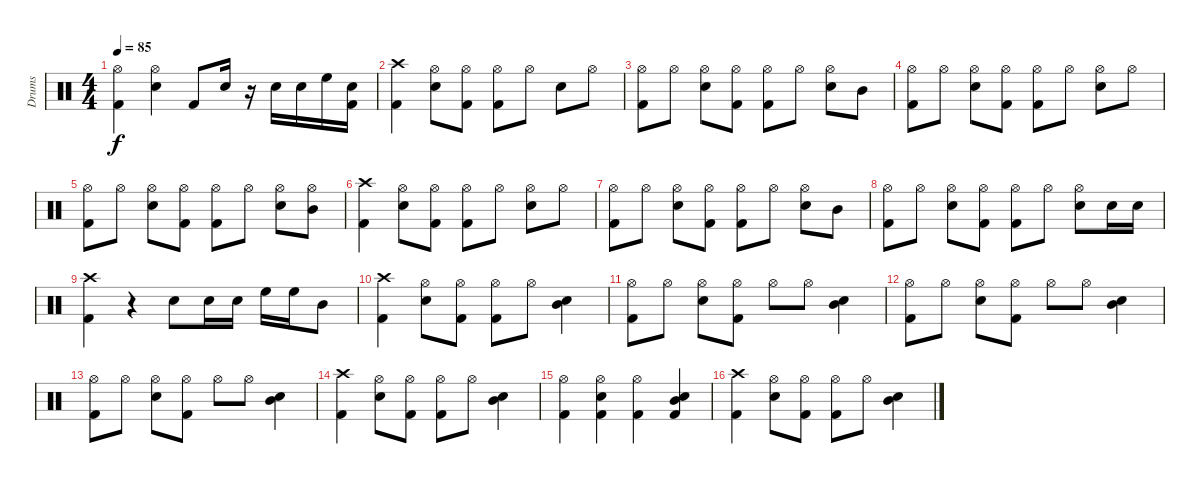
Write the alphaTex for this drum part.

\track ("Drums" "Drums") {instrument percussion}
\staff {score}
\articulation defaults
\ts (4 4)
\tempo 85
\clef neutral
\ks c
("Hi-Hat (open)" "Kick (hit) 2").4{dy f} ("Hi-Hat (open)" "Snare (hit) 2").4 "Kick (hit) 2".8 "Snare (hit) 2".16 r.16 "Snare (hit) 2".16 "Snare (hit) 2".16 "High Floor Tom (hit)".16 ("Snare (hit) 2" "Kick (hit) 2").16 |
("Crash high (hit)" "Kick (hit) 2").4 ("Hi-Hat (open)" "Snare (hit) 2").8 ("Hi-Hat (open)" "Kick (hit) 2").8 ("Hi-Hat (open)" "Kick (hit) 2").8 "Hi-Hat (open)".8 "Snare (hit) 2".8 "Hi-Hat (open)".8 |
("Hi-Hat (open)" "Kick (hit) 2").8 "Hi-Hat (open)".8 ("Hi-Hat (open)" "Snare (hit) 2").8 ("Hi-Hat (open)" "Kick (hit) 2").8 ("Hi-Hat (open)" "Kick (hit) 2").8 "Hi-Hat (open)".8 ("Hi-Hat (open)" "Snare (hit) 2").8 "Mid Tom (hit)".8 |
("Hi-Hat (open)" "Kick (hit) 2").8 "Hi-Hat (open)".8 ("Hi-Hat (open)" "Snare (hit) 2").8 ("Hi-Hat (open)" "Kick (hit) 2").8 ("Hi-Hat (open)" "Kick (hit) 2").8 "Hi-Hat (open)".8 ("Hi-Hat (open)" "Snare (hit) 2").8 "Hi-Hat (open)".8 |
("Hi-Hat (open)" "Kick (hit) 2").8 "Hi-Hat (open)".8 ("Hi-Hat (open)" "Snare (hit) 2").8 ("Hi-Hat (open)" "Kick (hit) 2").8 ("Hi-Hat (open)" "Kick (hit) 2").8 "Hi-Hat (open)".8 ("Hi-Hat (open)" "Snare (hit) 2").8 ("Hi-Hat (open)" "Mid Tom (hit)").8 |
("Crash high (hit)" "Kick (hit) 2").4 ("Hi-Hat (open)" "Snare (hit) 2").8 ("Hi-Hat (open)" "Kick (hit) 2").8 ("Hi-Hat (open)" "Kick (hit) 2").8 "Hi-Hat (open)".8 ("Hi-Hat (open)" "Snare (hit) 2").8 "Hi-Hat (open)".8 |
("Hi-Hat (open)" "Kick (hit) 2").8 "Hi-Hat (open)".8 ("Hi-Hat (open)" "Snare (hit) 2").8 ("Hi-Hat (open)" "Kick (hit) 2").8 ("Hi-Hat (open)" "Kick (hit) 2").8 "Hi-Hat (open)".8 ("Hi-Hat (open)" "Snare (hit) 2").8 "Mid Tom (hit)".8 |
("Hi-Hat (open)" "Kick (hit) 2").8 "Hi-Hat (open)".8 ("Hi-Hat (open)" "Snare (hit) 2").8 ("Hi-Hat (open)" "Kick (hit) 2").8 ("Hi-Hat (open)" "Kick (hit) 2").8 "Hi-Hat (open)".8 ("Hi-Hat (open)" "Snare (hit) 2").8 "Snare (hit) 2".16 "Snare (hit) 2".16 |
("Crash high (hit)" "Kick (hit) 2").4 r.4 "Snare (hit) 2".8 "Snare (hit) 2".16 "Snare (hit) 2".16 "High Floor Tom (hit)".16 "High Floor Tom (hit)".16 "Mid Tom (hit)".8 |
("Crash high (hit)" "Kick (hit) 2").4 ("Hi-Hat (open)" "Snare (hit) 2").8 ("Hi-Hat (open)" "Kick (hit) 2").8 ("Hi-Hat (open)" "Kick (hit) 2").8 "Hi-Hat (open)".8 ("Snare (hit) 2" "Mid Tom (hit)").4 |
("Hi-Hat (open)" "Kick (hit) 2").8 "Hi-Hat (open)".8 ("Hi-Hat (open)" "Snare (hit) 2").8 ("Hi-Hat (open)" "Kick (hit) 2").8 "Hi-Hat (open)".8 "Hi-Hat (open)".8 ("Snare (hit) 2" "Mid Tom (hit)").4 |
("Hi-Hat (open)" "Kick (hit) 2").8 "Hi-Hat (open)".8 ("Hi-Hat (open)" "Snare (hit) 2").8 ("Hi-Hat (open)" "Kick (hit) 2").8 "Hi-Hat (open)".8 "Hi-Hat (open)".8 ("Snare (hit) 2" "Mid Tom (hit)").4 |
("Hi-Hat (open)" "Kick (hit) 2").8 "Hi-Hat (open)".8 ("Hi-Hat (open)" "Snare (hit) 2").8 ("Hi-Hat (open)" "Kick (hit) 2").8 "Hi-Hat (open)".8 "Hi-Hat (open)".8 ("Snare (hit) 2" "Mid Tom (hit)").4 |
("Crash high (hit)" "Kick (hit) 2").4 ("Hi-Hat (open)" "Snare (hit) 2").8 ("Hi-Hat (open)" "Kick (hit) 2").8 ("Hi-Hat (open)" "Kick (hit) 2").8 "Hi-Hat (open)".8 ("Snare (hit) 2" "Mid Tom (hit)").4 |
("Hi-Hat (open)" "Kick (hit) 2").4 ("Hi-Hat (open)" "Snare (hit) 2" "Kick (hit) 2").4 ("Hi-Hat (open)" "Kick (hit) 2").4 ("Snare (hit) 2" "Mid Tom (hit)" "Kick (hit) 2").4 |
("Crash high (hit)" "Kick (hit) 2").4 ("Hi-Hat (open)" "Snare (hit) 2").8 ("Hi-Hat (open)" "Kick (hit) 2").8 ("Hi-Hat (open)" "Kick (hit) 2").8 "Hi-Hat (open)".8 ("Snare (hit) 2" "Mid Tom (hit)").4
